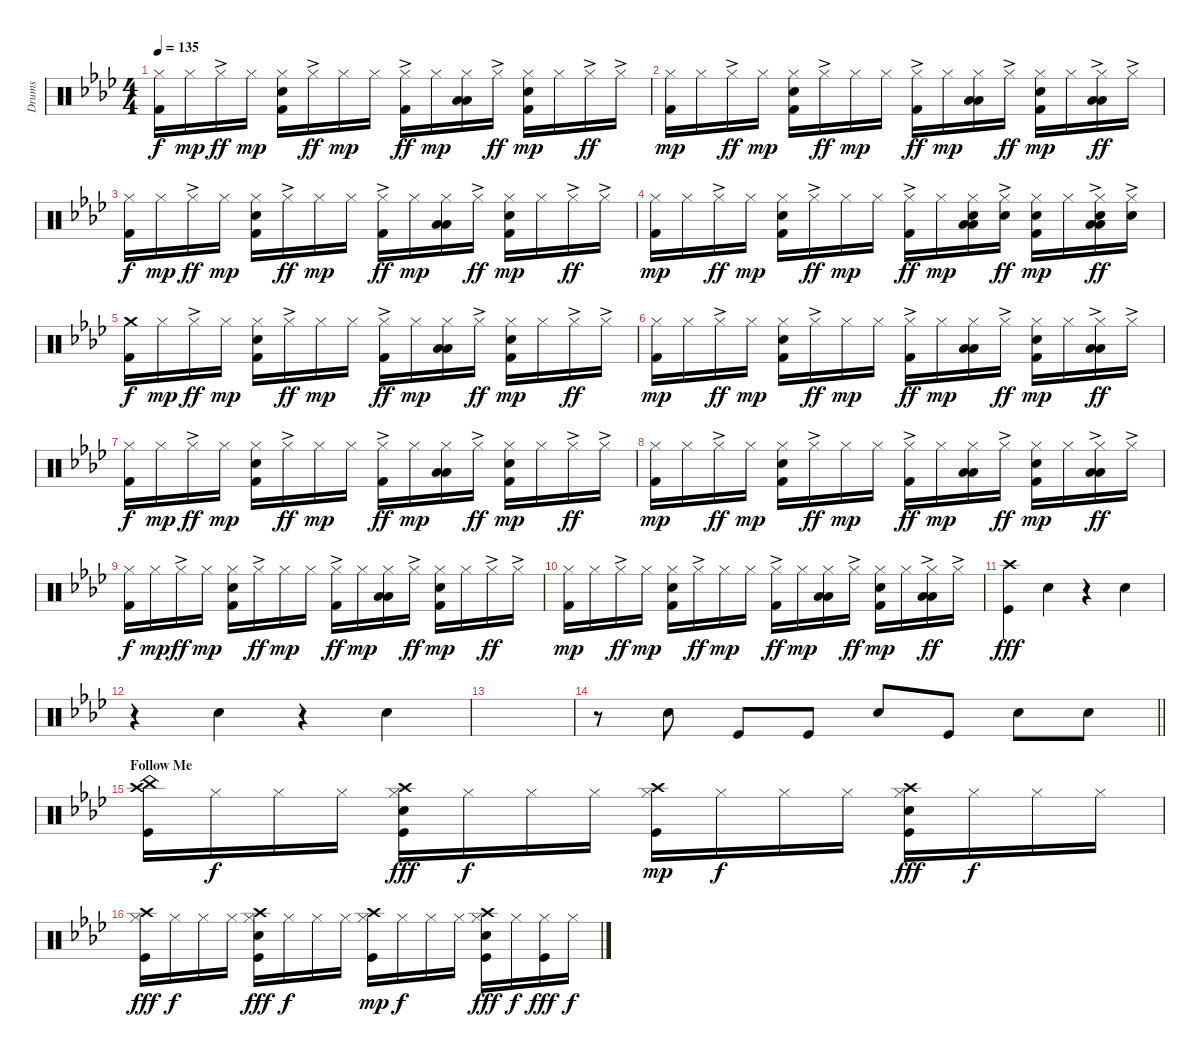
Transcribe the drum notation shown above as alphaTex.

\track ("Drums" "Drums") {instrument percussion}
\staff {score}
\articulation defaults
\ts (4 4)
\tempo 135
\clef neutral
\ks ab
("Kick (hit) 2" "Hi-Hat (closed)").16{dy f} "Hi-Hat (closed)".16{dy mp} "Hi-Hat (closed)"{ac}.16{dy ff} "Hi-Hat (closed)".16{dy mp} ("Kick (hit) 2" "Hi-Hat (closed)" "Snare (hit) 2").16 "Hi-Hat (closed)"{ac}.16{dy ff} "Hi-Hat (closed)".16{dy mp} "Hi-Hat (closed)".16 ("Kick (hit) 2" "Hi-Hat (closed)"{ac}).16{dy ff} "Hi-Hat (closed)".16{dy mp} ("Low Floor Tom (hit)" "Hi-Hat (closed)" "Low Tom (hit)").16 "Hi-Hat (closed)"{ac}.16{dy ff} ("Kick (hit) 2" "Hi-Hat (closed)" "Snare (hit) 2").16{dy mp} "Hi-Hat (closed)".16 "Hi-Hat (closed)"{ac}.16{dy ff} "Hi-Hat (closed)"{ac}.16 |
("Kick (hit) 2" "Hi-Hat (closed)").16{dy mp} "Hi-Hat (closed)".16 "Hi-Hat (closed)"{ac}.16{dy ff} "Hi-Hat (closed)".16{dy mp} ("Kick (hit) 2" "Hi-Hat (closed)" "Snare (hit) 2").16 "Hi-Hat (closed)"{ac}.16{dy ff} "Hi-Hat (closed)".16{dy mp} "Hi-Hat (closed)".16 ("Kick (hit) 2" "Hi-Hat (closed)"{ac}).16{dy ff} "Hi-Hat (closed)".16{dy mp} ("Low Floor Tom (hit)" "Hi-Hat (closed)" "Low Tom (hit)").16 "Hi-Hat (closed)"{ac}.16{dy ff} ("Kick (hit) 2" "Hi-Hat (closed)" "Snare (hit) 2").16{dy mp} "Hi-Hat (closed)".16 ("Low Floor Tom (hit)" "Hi-Hat (closed)"{ac} "Low Tom (hit)").16{dy ff} "Hi-Hat (closed)"{ac}.16 |
("Kick (hit) 2" "Hi-Hat (closed)").16{dy f} "Hi-Hat (closed)".16{dy mp} "Hi-Hat (closed)"{ac}.16{dy ff} "Hi-Hat (closed)".16{dy mp} ("Kick (hit) 2" "Hi-Hat (closed)" "Snare (hit) 2").16 "Hi-Hat (closed)"{ac}.16{dy ff} "Hi-Hat (closed)".16{dy mp} "Hi-Hat (closed)".16 ("Kick (hit) 2" "Hi-Hat (closed)"{ac}).16{dy ff} "Hi-Hat (closed)".16{dy mp} ("Low Floor Tom (hit)" "Hi-Hat (closed)" "Low Tom (hit)").16 "Hi-Hat (closed)"{ac}.16{dy ff} ("Kick (hit) 2" "Hi-Hat (closed)" "Snare (hit) 2").16{dy mp} "Hi-Hat (closed)".16 "Hi-Hat (closed)"{ac}.16{dy ff} "Hi-Hat (closed)"{ac}.16 |
("Kick (hit) 2" "Hi-Hat (closed)").16{dy mp} "Hi-Hat (closed)".16 "Hi-Hat (closed)"{ac}.16{dy ff} "Hi-Hat (closed)".16{dy mp} ("Kick (hit) 2" "Hi-Hat (closed)" "Snare (hit) 2").16 "Hi-Hat (closed)"{ac}.16{dy ff} "Hi-Hat (closed)".16{dy mp} "Hi-Hat (closed)".16 ("Kick (hit) 2" "Hi-Hat (closed)"{ac}).16{dy ff} "Hi-Hat (closed)".16{dy mp} ("Low Floor Tom (hit)" "Hi-Hat (closed)" "Low Tom (hit)" "Snare (hit) 2").16 ("Snare (hit) 2" "Hi-Hat (closed)"{ac}).16{dy ff} ("Kick (hit) 2" "Hi-Hat (closed)" "Snare (hit) 2").16{dy mp} "Hi-Hat (closed)".16 ("Low Floor Tom (hit)" "Hi-Hat (closed)"{ac} "Low Tom (hit)" "Snare (hit) 2").16{dy ff} ("Snare (hit) 2" "Hi-Hat (closed)"{ac}).16 |
("Kick (hit) 2" "Crash medium (hit)").16{dy f} "Hi-Hat (closed)".16{dy mp} "Hi-Hat (closed)"{ac}.16{dy ff} "Hi-Hat (closed)".16{dy mp} ("Kick (hit) 2" "Hi-Hat (closed)" "Snare (hit) 2").16 "Hi-Hat (closed)"{ac}.16{dy ff} "Hi-Hat (closed)".16{dy mp} "Hi-Hat (closed)".16 ("Kick (hit) 2" "Hi-Hat (closed)"{ac}).16{dy ff} "Hi-Hat (closed)".16{dy mp} ("Low Floor Tom (hit)" "Hi-Hat (closed)" "Low Tom (hit)").16 "Hi-Hat (closed)"{ac}.16{dy ff} ("Kick (hit) 2" "Hi-Hat (closed)" "Snare (hit) 2").16{dy mp} "Hi-Hat (closed)".16 "Hi-Hat (closed)"{ac}.16{dy ff} "Hi-Hat (closed)"{ac}.16 |
("Kick (hit) 2" "Hi-Hat (closed)").16{dy mp} "Hi-Hat (closed)".16 "Hi-Hat (closed)"{ac}.16{dy ff} "Hi-Hat (closed)".16{dy mp} ("Kick (hit) 2" "Hi-Hat (closed)" "Snare (hit) 2").16 "Hi-Hat (closed)"{ac}.16{dy ff} "Hi-Hat (closed)".16{dy mp} "Hi-Hat (closed)".16 ("Kick (hit) 2" "Hi-Hat (closed)"{ac}).16{dy ff} "Hi-Hat (closed)".16{dy mp} ("Low Floor Tom (hit)" "Hi-Hat (closed)" "Low Tom (hit)").16 "Hi-Hat (closed)"{ac}.16{dy ff} ("Kick (hit) 2" "Hi-Hat (closed)" "Snare (hit) 2").16{dy mp} "Hi-Hat (closed)".16 ("Low Floor Tom (hit)" "Hi-Hat (closed)"{ac} "Low Tom (hit)").16{dy ff} "Hi-Hat (closed)"{ac}.16 |
("Kick (hit) 2" "Hi-Hat (closed)").16{dy f} "Hi-Hat (closed)".16{dy mp} "Hi-Hat (closed)"{ac}.16{dy ff} "Hi-Hat (closed)".16{dy mp} ("Kick (hit) 2" "Hi-Hat (closed)" "Snare (hit) 2").16 "Hi-Hat (closed)"{ac}.16{dy ff} "Hi-Hat (closed)".16{dy mp} "Hi-Hat (closed)".16 ("Kick (hit) 2" "Hi-Hat (closed)"{ac}).16{dy ff} "Hi-Hat (closed)".16{dy mp} ("Low Floor Tom (hit)" "Hi-Hat (closed)" "Low Tom (hit)").16 "Hi-Hat (closed)"{ac}.16{dy ff} ("Kick (hit) 2" "Hi-Hat (closed)" "Snare (hit) 2").16{dy mp} "Hi-Hat (closed)".16 "Hi-Hat (closed)"{ac}.16{dy ff} "Hi-Hat (closed)"{ac}.16 |
("Kick (hit) 2" "Hi-Hat (closed)").16{dy mp} "Hi-Hat (closed)".16 "Hi-Hat (closed)"{ac}.16{dy ff} "Hi-Hat (closed)".16{dy mp} ("Kick (hit) 2" "Hi-Hat (closed)" "Snare (hit) 2").16 "Hi-Hat (closed)"{ac}.16{dy ff} "Hi-Hat (closed)".16{dy mp} "Hi-Hat (closed)".16 ("Kick (hit) 2" "Hi-Hat (closed)"{ac}).16{dy ff} "Hi-Hat (closed)".16{dy mp} ("Low Floor Tom (hit)" "Hi-Hat (closed)" "Low Tom (hit)").16 "Hi-Hat (closed)"{ac}.16{dy ff} ("Kick (hit) 2" "Hi-Hat (closed)" "Snare (hit) 2").16{dy mp} "Hi-Hat (closed)".16 ("Low Floor Tom (hit)" "Hi-Hat (closed)"{ac} "Low Tom (hit)").16{dy ff} "Hi-Hat (closed)"{ac}.16 |
("Kick (hit) 2" "Hi-Hat (closed)").16{dy f} "Hi-Hat (closed)".16{dy mp} "Hi-Hat (closed)"{ac}.16{dy ff} "Hi-Hat (closed)".16{dy mp} ("Kick (hit) 2" "Hi-Hat (closed)" "Snare (hit) 2").16 "Hi-Hat (closed)"{ac}.16{dy ff} "Hi-Hat (closed)".16{dy mp} "Hi-Hat (closed)".16 ("Kick (hit) 2" "Hi-Hat (closed)"{ac}).16{dy ff} "Hi-Hat (closed)".16{dy mp} ("Low Floor Tom (hit)" "Hi-Hat (closed)" "Low Tom (hit)").16 "Hi-Hat (closed)"{ac}.16{dy ff} ("Kick (hit) 2" "Hi-Hat (closed)" "Snare (hit) 2").16{dy mp} "Hi-Hat (closed)".16 "Hi-Hat (closed)"{ac}.16{dy ff} "Hi-Hat (closed)"{ac}.16 |
("Kick (hit) 2" "Hi-Hat (closed)").16{dy mp} "Hi-Hat (closed)".16 "Hi-Hat (closed)"{ac}.16{dy ff} "Hi-Hat (closed)".16{dy mp} ("Kick (hit) 2" "Hi-Hat (closed)" "Snare (hit) 2").16 "Hi-Hat (closed)"{ac}.16{dy ff} "Hi-Hat (closed)".16{dy mp} "Hi-Hat (closed)".16 ("Kick (hit) 2" "Hi-Hat (closed)"{ac}).16{dy ff} "Hi-Hat (closed)".16{dy mp} ("Low Floor Tom (hit)" "Hi-Hat (closed)" "Low Tom (hit)").16 "Hi-Hat (closed)"{ac}.16{dy ff} ("Kick (hit) 2" "Hi-Hat (closed)" "Snare (hit) 2").16{dy mp} "Hi-Hat (closed)".16 ("Low Floor Tom (hit)" "Hi-Hat (closed)"{ac} "Low Tom (hit)").16{dy ff} "Hi-Hat (closed)"{ac}.16 |
("Kick (hit)" "Crash high (hit)").4{dy fff} "Snare (hit) 2".4 r.4 "Snare (hit) 2".4 |
r.4 "Snare (hit) 2".4 r.4 "Snare (hit) 2".4 |
|
\barLineRight lightlight
r.8 "Snare (hit) 2".8 "Kick (hit)".8 "Kick (hit)".8 "Snare (hit) 2".8 "Kick (hit)".8 "Snare (hit) 2".8 "Snare (hit) 2".8 |
\section ("" "Follow Me")
("Crash high (hit)" "Kick (hit)" "China (hit)").16 "Hi-Hat (closed)".16{dy f} "Hi-Hat (closed)".16 "Hi-Hat (closed)".16 ("Hi-Hat (closed)" "Crash high (hit)" "Snare (hit) 2" "Kick (hit)").16{dy fff} "Hi-Hat (closed)".16{dy f} "Hi-Hat (closed)".16 "Hi-Hat (closed)".16 ("Hi-Hat (closed)" "Kick (hit)" "Crash high (hit)").16{dy mp} "Hi-Hat (closed)".16{dy f} "Hi-Hat (closed)".16 "Hi-Hat (closed)".16 ("Hi-Hat (closed)" "Crash high (hit)" "Snare (hit) 2" "Kick (hit)").16{dy fff} "Hi-Hat (closed)".16{dy f} "Hi-Hat (closed)".16 "Hi-Hat (closed)".16 |
("Crash high (hit)" "Kick (hit)" "Hi-Hat (closed)").16{dy fff} "Hi-Hat (closed)".16{dy f} "Hi-Hat (closed)".16 "Hi-Hat (closed)".16 ("Hi-Hat (closed)" "Crash high (hit)" "Snare (hit) 2" "Kick (hit)").16{dy fff} "Hi-Hat (closed)".16{dy f} "Hi-Hat (closed)".16 "Hi-Hat (closed)".16 ("Hi-Hat (closed)" "Kick (hit)" "Crash high (hit)").16{dy mp} "Hi-Hat (closed)".16{dy f} "Hi-Hat (closed)".16 "Hi-Hat (closed)".16 ("Hi-Hat (closed)" "Crash high (hit)" "Snare (hit) 2" "Kick (hit)").16{dy fff} "Hi-Hat (closed)".16{dy f} ("Hi-Hat (closed)" "Kick (hit)").16{dy fff} "Hi-Hat (closed)".16{dy f}
